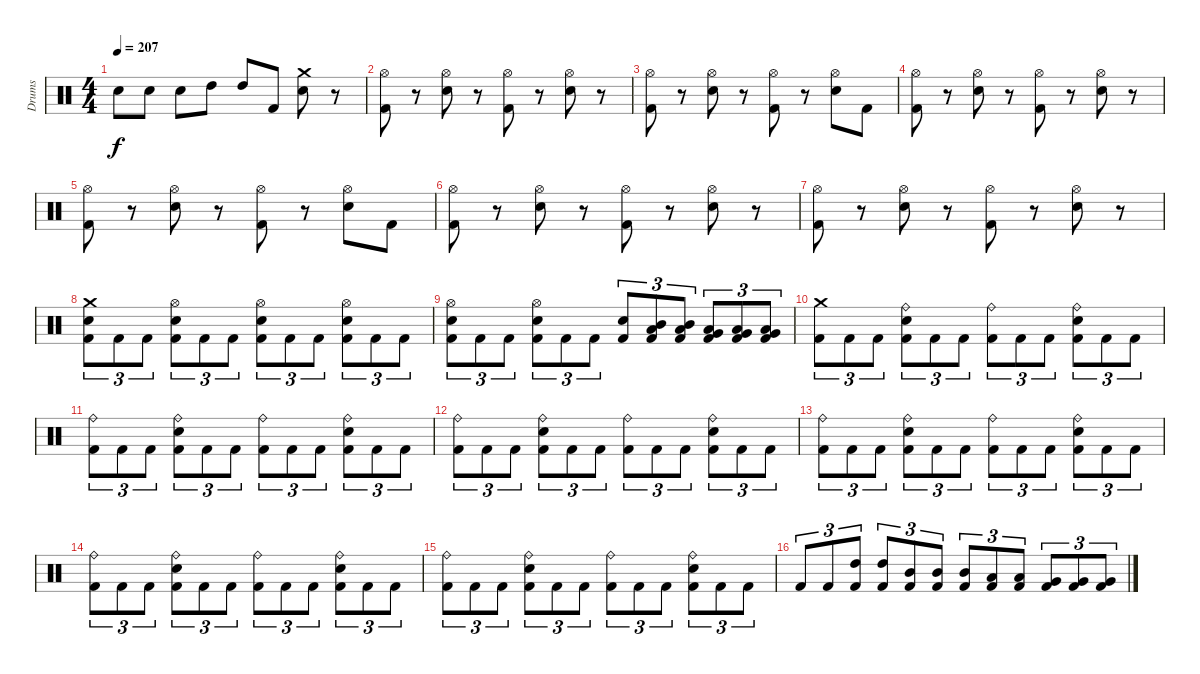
\track ("Drums" "Drums") {instrument percussion}
\staff {score}
\articulation defaults
\ts (4 4)
\tempo 207
\clef neutral
\ks c "Electric Snare (hit)".8{dy f} "Electric Snare (hit)".8 "Electric Snare (hit)".8 "High Tom (hit)".8 "High Tom (hit)".8 "Kick (hit) 2".8
("Crash medium (hit)" "Electric Snare (hit)").8 r.8 |
("Hi-Hat (open)" "Kick (hit) 2").8 r.8 ("Hi-Hat (open)" "Electric Snare (hit)").8 r.8 ("Hi-Hat (open)" "Kick (hit) 2").8 r.8 ("Hi-Hat (open)" "Electric Snare (hit)").8 r.8 |
("Hi-Hat (open)" "Kick (hit) 2").8 r.8 ("Hi-Hat (open)" "Electric Snare (hit)").8 r.8 ("Hi-Hat (open)" "Kick (hit) 2").8 r.8 ("Hi-Hat (open)" "Electric Snare (hit)").8 "Kick (hit) 2".8 |
("Hi-Hat (open)" "Kick (hit) 2").8 r.8 ("Hi-Hat (open)" "Electric Snare (hit)").8 r.8 ("Hi-Hat (open)" "Kick (hit) 2").8 r.8 ("Hi-Hat (open)" "Electric Snare (hit)").8 r.8 |
("Hi-Hat (open)" "Kick (hit) 2").8 r.8 ("Hi-Hat (open)" "Electric Snare (hit)").8 r.8 ("Hi-Hat (open)" "Kick (hit) 2").8 r.8 ("Hi-Hat (open)" "Electric Snare (hit)").8 "Kick (hit) 2".8 |
("Hi-Hat (open)" "Kick (hit) 2").8 r.8 ("Hi-Hat (open)" "Electric Snare (hit)").8 r.8 ("Hi-Hat (open)" "Kick (hit) 2").8 r.8 ("Hi-Hat (open)" "Electric Snare (hit)").8 r.8 |
("Hi-Hat (open)" "Kick (hit) 2").8 r.8 ("Hi-Hat (open)" "Electric Snare (hit)").8 r.8 ("Hi-Hat (open)" "Kick (hit) 2").8 r.8 ("Hi-Hat (open)" "Electric Snare (hit)").8 r.8 |
("Crash medium (hit)" "Electric Snare (hit)" "Kick (hit) 2").8{tu (3 2)} "Kick (hit) 2".8{tu (3 2)} "Kick (hit) 2".8{tu (3 2)} ("Hi-Hat (open)" "Electric Snare (hit)" "Kick (hit) 2").8{tu (3 2)} "Kick (hit) 2".8{tu (3 2)} "Kick (hit) 2".8{tu (3 2)} ("Hi-Hat (open)" "Electric Snare (hit)" "Kick (hit) 2").8{tu (3 2)} "Kick (hit) 2".8{tu (3 2)} "Kick (hit) 2".8{tu (3 2)} ("Hi-Hat (open)" "Electric Snare (hit)" "Kick (hit) 2").8{tu (3 2)} "Kick (hit) 2".8{tu (3 2)} "Kick (hit) 2".8{tu (3 2)} |
("Hi-Hat (open)" "Electric Snare (hit)" "Kick (hit) 2").8{tu (3 2)} "Kick (hit) 2".8{tu (3 2)} "Kick (hit) 2".8{tu (3 2)} ("Hi-Hat (open)" "Electric Snare (hit)" "Kick (hit) 2").8{tu (3 2)} "Kick (hit) 2".8{tu (3 2)} "Kick (hit) 2".8{tu (3 2)} ("Electric Snare (hit)" "Kick (hit) 2").8{tu (3 2)} ("Mid Tom (hit)" "Low Tom (hit)" "Kick (hit) 2").8{tu (3 2)} ("Mid Tom (hit)" "Low Tom (hit)" "Kick (hit) 2").8{tu (3 2)} ("Low Tom (hit)" "Very Low Tom (hit)" "Kick (hit) 2").8{tu (3 2)} ("Low Tom (hit)" "Very Low Tom (hit)" "Kick (hit) 2").8{tu (3 2)} ("Very Low Tom (hit)" "Low Floor Tom (hit)" "Kick (hit) 2").8{tu (3 2)} |
("Crash medium (hit)" "Kick (hit) 2").8{tu (3 2)} "Kick (hit) 2".8{tu (3 2)} "Kick (hit) 2".8{tu (3 2)} ("Ride (bell)" "Electric Snare (hit)" "Kick (hit) 2").8{tu (3 2)} "Kick (hit) 2".8{tu (3 2)} "Kick (hit) 2".8{tu (3 2)} ("Ride (bell)" "Kick (hit) 2").8{tu (3 2)} "Kick (hit) 2".8{tu (3 2)} "Kick (hit) 2".8{tu (3 2)} ("Ride (bell)" "Electric Snare (hit)" "Kick (hit) 2").8{tu (3 2)} "Kick (hit) 2".8{tu (3 2)} "Kick (hit) 2".8{tu (3 2)} |
("Ride (bell)" "Kick (hit) 2").8{tu (3 2)} "Kick (hit) 2".8{tu (3 2)} "Kick (hit) 2".8{tu (3 2)} ("Ride (bell)" "Electric Snare (hit)" "Kick (hit) 2").8{tu (3 2)} "Kick (hit) 2".8{tu (3 2)} "Kick (hit) 2".8{tu (3 2)} ("Ride (bell)" "Kick (hit) 2").8{tu (3 2)} "Kick (hit) 2".8{tu (3 2)} "Kick (hit) 2".8{tu (3 2)} ("Ride (bell)" "Electric Snare (hit)" "Kick (hit) 2").8{tu (3 2)} "Kick (hit) 2".8{tu (3 2)} "Kick (hit) 2".8{tu (3 2)} |
("Ride (bell)" "Kick (hit) 2").8{tu (3 2)} "Kick (hit) 2".8{tu (3 2)} "Kick (hit) 2".8{tu (3 2)} ("Ride (bell)" "Electric Snare (hit)" "Kick (hit) 2").8{tu (3 2)} "Kick (hit) 2".8{tu (3 2)} "Kick (hit) 2".8{tu (3 2)} ("Ride (bell)" "Kick (hit) 2").8{tu (3 2)} "Kick (hit) 2".8{tu (3 2)} "Kick (hit) 2".8{tu (3 2)} ("Ride (bell)" "Electric Snare (hit)" "Kick (hit) 2").8{tu (3 2)} "Kick (hit) 2".8{tu (3 2)} "Kick (hit) 2".8{tu (3 2)} |
("Ride (bell)" "Kick (hit) 2").8{tu (3 2)} "Kick (hit) 2".8{tu (3 2)} "Kick (hit) 2".8{tu (3 2)} ("Ride (bell)" "Electric Snare (hit)" "Kick (hit) 2").8{tu (3 2)} "Kick (hit) 2".8{tu (3 2)} "Kick (hit) 2".8{tu (3 2)} ("Ride (bell)" "Kick (hit) 2").8{tu (3 2)} "Kick (hit) 2".8{tu (3 2)} "Kick (hit) 2".8{tu (3 2)} ("Ride (bell)" "Electric Snare (hit)" "Kick (hit) 2").8{tu (3 2)} "Kick (hit) 2".8{tu (3 2)} "Kick (hit) 2".8{tu (3 2)} |
("Ride (bell)" "Kick (hit) 2").8{tu (3 2)} "Kick (hit) 2".8{tu (3 2)} "Kick (hit) 2".8{tu (3 2)} ("Ride (bell)" "Electric Snare (hit)" "Kick (hit) 2").8{tu (3 2)} "Kick (hit) 2".8{tu (3 2)} "Kick (hit) 2".8{tu (3 2)} ("Ride (bell)" "Kick (hit) 2").8{tu (3 2)} "Kick (hit) 2".8{tu (3 2)} "Kick (hit) 2".8{tu (3 2)} ("Ride (bell)" "Electric Snare (hit)" "Kick (hit) 2").8{tu (3 2)} "Kick (hit) 2".8{tu (3 2)} "Kick (hit) 2".8{tu (3 2)} |
("Ride (bell)" "Kick (hit) 2").8{tu (3 2)} "Kick (hit) 2".8{tu (3 2)} "Kick (hit) 2".8{tu (3 2)} ("Ride (bell)" "Electric Snare (hit)" "Kick (hit) 2").8{tu (3 2)} "Kick (hit) 2".8{tu (3 2)} "Kick (hit) 2".8{tu (3 2)} ("Ride (bell)" "Kick (hit) 2").8{tu (3 2)} "Kick (hit) 2".8{tu (3 2)} "Kick (hit) 2".8{tu (3 2)} ("Ride (bell)" "Electric Snare (hit)" "Kick (hit) 2").8{tu (3 2)} "Kick (hit) 2".8{tu (3 2)} "Kick (hit) 2".8{tu (3 2)} |
"Kick (hit) 2".8{tu (3 2)} "Kick (hit) 2".8{tu (3 2)} ("High Tom (hit)" "Kick (hit) 2").8{tu (3 2)} ("High Tom (hit)" "Kick (hit) 2").8{tu (3 2)} ("Mid Tom (hit)" "Kick (hit) 2").8{tu (3 2)} ("Mid Tom (hit)" "Kick (hit) 2").8{tu (3 2)} ("Mid Tom (hit)" "Kick (hit) 2").8{tu (3 2)} ("Low Tom (hit)" "Kick (hit) 2").8{tu (3 2)} ("Low Tom (hit)" "Kick (hit) 2").8{tu (3 2)} ("Very Low Tom (hit)" "Kick (hit) 2").8{tu (3 2)} ("Very Low Tom (hit)" "Kick (hit) 2").8{tu (3 2)} ("Very Low Tom (hit)" "Kick (hit) 2").8{tu (3 2)}
